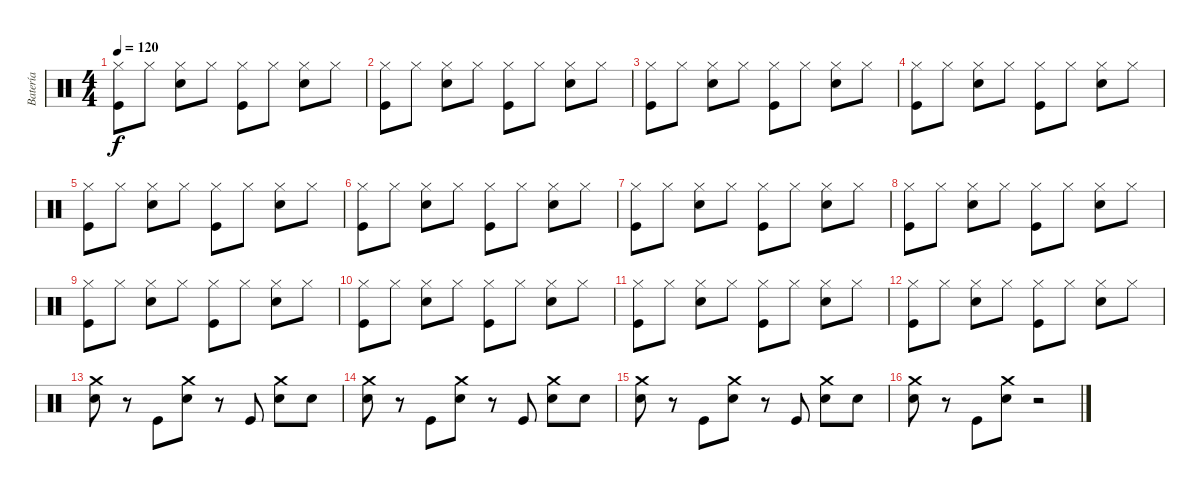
\track ("Batería" "Batería") {instrument percussion}
\staff {score}
\articulation defaults
\ts (4 4)
\tempo 120
\clef neutral
\ks c
("Hi-Hat (closed)" "Kick (hit)").8{dy f} "Hi-Hat (closed)".8 ("Hi-Hat (closed)" "Snare (hit) 2").8 "Hi-Hat (closed)".8 ("Hi-Hat (closed)" "Kick (hit)").8 "Hi-Hat (closed)".8 ("Hi-Hat (closed)" "Snare (hit) 2").8 "Hi-Hat (closed)".8 |
("Hi-Hat (closed)" "Kick (hit)").8 "Hi-Hat (closed)".8 ("Hi-Hat (closed)" "Snare (hit) 2").8 "Hi-Hat (closed)".8 ("Hi-Hat (closed)" "Kick (hit)").8 "Hi-Hat (closed)".8 ("Hi-Hat (closed)" "Snare (hit) 2").8 "Hi-Hat (closed)".8 |
("Hi-Hat (closed)" "Kick (hit)").8 "Hi-Hat (closed)".8 ("Hi-Hat (closed)" "Snare (hit) 2").8 "Hi-Hat (closed)".8 ("Hi-Hat (closed)" "Kick (hit)").8 "Hi-Hat (closed)".8 ("Hi-Hat (closed)" "Snare (hit) 2").8 "Hi-Hat (closed)".8 |
("Hi-Hat (closed)" "Kick (hit)").8 "Hi-Hat (closed)".8 ("Hi-Hat (closed)" "Snare (hit) 2").8 "Hi-Hat (closed)".8 ("Hi-Hat (closed)" "Kick (hit)").8 "Hi-Hat (closed)".8 ("Hi-Hat (closed)" "Snare (hit) 2").8 "Hi-Hat (closed)".8 |
("Hi-Hat (closed)" "Kick (hit)").8 "Hi-Hat (closed)".8 ("Hi-Hat (closed)" "Snare (hit) 2").8 "Hi-Hat (closed)".8 ("Hi-Hat (closed)" "Kick (hit)").8 "Hi-Hat (closed)".8 ("Hi-Hat (closed)" "Snare (hit) 2").8 "Hi-Hat (closed)".8 |
("Hi-Hat (closed)" "Kick (hit)").8 "Hi-Hat (closed)".8 ("Hi-Hat (closed)" "Snare (hit) 2").8 "Hi-Hat (closed)".8 ("Hi-Hat (closed)" "Kick (hit)").8 "Hi-Hat (closed)".8 ("Hi-Hat (closed)" "Snare (hit) 2").8 "Hi-Hat (closed)".8 |
("Hi-Hat (closed)" "Kick (hit)").8 "Hi-Hat (closed)".8 ("Hi-Hat (closed)" "Snare (hit) 2").8 "Hi-Hat (closed)".8 ("Hi-Hat (closed)" "Kick (hit)").8 "Hi-Hat (closed)".8 ("Hi-Hat (closed)" "Snare (hit) 2").8 "Hi-Hat (closed)".8 |
("Hi-Hat (closed)" "Kick (hit)").8 "Hi-Hat (closed)".8 ("Hi-Hat (closed)" "Snare (hit) 2").8 "Hi-Hat (closed)".8 ("Hi-Hat (closed)" "Kick (hit)").8 "Hi-Hat (closed)".8 ("Hi-Hat (closed)" "Snare (hit) 2").8 "Hi-Hat (closed)".8 |
("Hi-Hat (closed)" "Kick (hit)").8 "Hi-Hat (closed)".8 ("Hi-Hat (closed)" "Snare (hit) 2").8 "Hi-Hat (closed)".8 ("Hi-Hat (closed)" "Kick (hit)").8 "Hi-Hat (closed)".8 ("Hi-Hat (closed)" "Snare (hit) 2").8 "Hi-Hat (closed)".8 |
("Hi-Hat (closed)" "Kick (hit)").8 "Hi-Hat (closed)".8 ("Hi-Hat (closed)" "Snare (hit) 2").8 "Hi-Hat (closed)".8 ("Hi-Hat (closed)" "Kick (hit)").8 "Hi-Hat (closed)".8 ("Hi-Hat (closed)" "Snare (hit) 2").8 "Hi-Hat (closed)".8 |
("Hi-Hat (closed)" "Kick (hit)").8 "Hi-Hat (closed)".8 ("Hi-Hat (closed)" "Snare (hit) 2").8 "Hi-Hat (closed)".8 ("Hi-Hat (closed)" "Kick (hit)").8 "Hi-Hat (closed)".8 ("Hi-Hat (closed)" "Snare (hit) 2").8 "Hi-Hat (closed)".8 |
("Hi-Hat (closed)" "Kick (hit)").8 "Hi-Hat (closed)".8 ("Hi-Hat (closed)" "Snare (hit) 2").8 "Hi-Hat (closed)".8 ("Hi-Hat (closed)" "Kick (hit)").8 "Hi-Hat (closed)".8 ("Hi-Hat (closed)" "Snare (hit) 2").8 "Hi-Hat (closed)".8 |
("Crash medium (hit)" "Snare (hit) 2").8 r.8 "Kick (hit)".8 ("Crash medium (hit)" "Snare (hit) 2").8 r.8 "Kick (hit)".8 ("Crash medium (hit)" "Snare (hit) 2").8 "Snare (hit) 2".8 |
("Crash medium (hit)" "Snare (hit) 2").8 r.8 "Kick (hit)".8 ("Crash medium (hit)" "Snare (hit) 2").8 r.8 "Kick (hit)".8 ("Crash medium (hit)" "Snare (hit) 2").8 "Snare (hit) 2".8 |
("Crash medium (hit)" "Snare (hit) 2").8 r.8 "Kick (hit)".8 ("Crash medium (hit)" "Snare (hit) 2").8 r.8 "Kick (hit)".8 ("Crash medium (hit)" "Snare (hit) 2").8 "Snare (hit) 2".8 |
("Crash medium (hit)" "Snare (hit) 2").8 r.8 "Kick (hit)".8 ("Crash medium (hit)" "Snare (hit) 2").8 r.2
